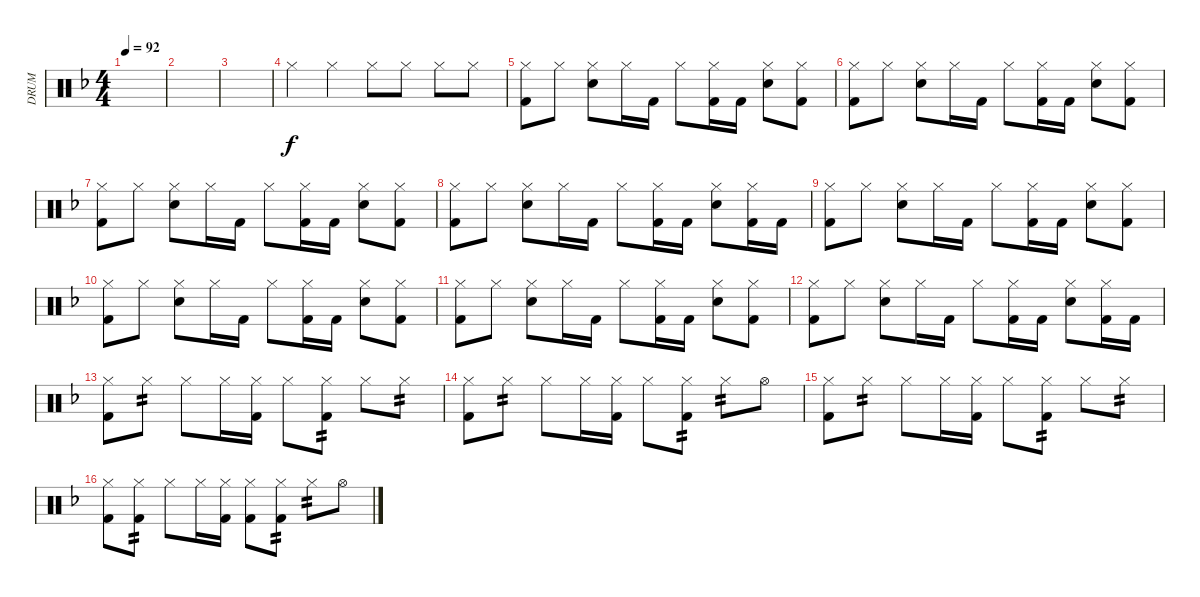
\track ("DRUM" "DRUM") {instrument percussion}
\staff {score}
\articulation defaults
\ts (4 4)
\tempo 92
\clef neutral
\ks f
|
|
|
"Hi-Hat (closed)".4 "Hi-Hat (closed)".4 "Hi-Hat (closed)".8 "Hi-Hat (closed)".8 "Hi-Hat (closed)".8 "Hi-Hat (closed)".8 |
("Hi-Hat (closed)" "Kick (hit) 2").8 "Hi-Hat (closed)".8 ("Hi-Hat (closed)" "Electric Snare (hit)").8 "Hi-Hat (closed)".16 "Kick (hit) 2".16 "Hi-Hat (closed)".8 ("Hi-Hat (closed)" "Kick (hit) 2").16 "Kick (hit) 2".16 ("Hi-Hat (closed)" "Electric Snare (hit)").8 ("Hi-Hat (closed)" "Kick (hit) 2").8 |
("Hi-Hat (closed)" "Kick (hit) 2").8 "Hi-Hat (closed)".8 ("Hi-Hat (closed)" "Electric Snare (hit)").8 "Hi-Hat (closed)".16 "Kick (hit) 2".16 "Hi-Hat (closed)".8 ("Hi-Hat (closed)" "Kick (hit) 2").16 "Kick (hit) 2".16 ("Hi-Hat (closed)" "Electric Snare (hit)").8 ("Hi-Hat (closed)" "Kick (hit) 2").8 |
("Hi-Hat (closed)" "Kick (hit) 2").8 "Hi-Hat (closed)".8 ("Hi-Hat (closed)" "Electric Snare (hit)").8 "Hi-Hat (closed)".16 "Kick (hit) 2".16 "Hi-Hat (closed)".8 ("Hi-Hat (closed)" "Kick (hit) 2").16 "Kick (hit) 2".16 ("Hi-Hat (closed)" "Electric Snare (hit)").8 ("Hi-Hat (closed)" "Kick (hit) 2").8 |
("Hi-Hat (closed)" "Kick (hit) 2").8 "Hi-Hat (closed)".8 ("Hi-Hat (closed)" "Electric Snare (hit)").8 "Hi-Hat (closed)".16 "Kick (hit) 2".16 "Hi-Hat (closed)".8 ("Hi-Hat (closed)" "Kick (hit) 2").16 "Kick (hit) 2".16 ("Hi-Hat (closed)" "Electric Snare (hit)").8 ("Hi-Hat (closed)" "Kick (hit) 2").16 "Kick (hit) 2".16 |
("Hi-Hat (closed)" "Kick (hit) 2").8 "Hi-Hat (closed)".8 ("Hi-Hat (closed)" "Electric Snare (hit)").8 "Hi-Hat (closed)".16 "Kick (hit) 2".16 "Hi-Hat (closed)".8 ("Hi-Hat (closed)" "Kick (hit) 2").16 "Kick (hit) 2".16 ("Hi-Hat (closed)" "Electric Snare (hit)").8 ("Hi-Hat (closed)" "Kick (hit) 2").8 |
("Hi-Hat (closed)" "Kick (hit) 2").8 "Hi-Hat (closed)".8 ("Hi-Hat (closed)" "Electric Snare (hit)").8 "Hi-Hat (closed)".16 "Kick (hit) 2".16 "Hi-Hat (closed)".8 ("Hi-Hat (closed)" "Kick (hit) 2").16 "Kick (hit) 2".16 ("Hi-Hat (closed)" "Electric Snare (hit)").8 ("Hi-Hat (closed)" "Kick (hit) 2").8 |
("Hi-Hat (closed)" "Kick (hit) 2").8 "Hi-Hat (closed)".8 ("Hi-Hat (closed)" "Electric Snare (hit)").8 "Hi-Hat (closed)".16 "Kick (hit) 2".16 "Hi-Hat (closed)".8 ("Hi-Hat (closed)" "Kick (hit) 2").16 "Kick (hit) 2".16 ("Hi-Hat (closed)" "Electric Snare (hit)").8 ("Hi-Hat (closed)" "Kick (hit) 2").8 |
("Hi-Hat (closed)" "Kick (hit) 2").8 "Hi-Hat (closed)".8 ("Hi-Hat (closed)" "Electric Snare (hit)").8 "Hi-Hat (closed)".16 "Kick (hit) 2".16 "Hi-Hat (closed)".8 ("Hi-Hat (closed)" "Kick (hit) 2").16 "Kick (hit) 2".16 ("Hi-Hat (closed)" "Electric Snare (hit)").8 ("Hi-Hat (closed)" "Kick (hit) 2").16 "Kick (hit) 2".16 |
("Hi-Hat (closed)" "Kick (hit) 2").8 "Hi-Hat (closed)".8{tp 2} "Hi-Hat (closed)".8 "Hi-Hat (closed)".16 ("Hi-Hat (closed)" "Kick (hit) 2").16 "Hi-Hat (closed)".8 ("Hi-Hat (closed)" "Kick (hit) 2").8{tp 2} "Hi-Hat (closed)".8 "Hi-Hat (closed)".8{tp 2} |
("Hi-Hat (closed)" "Kick (hit) 2").8 "Hi-Hat (closed)".8{tp 2} "Hi-Hat (closed)".8 "Hi-Hat (closed)".16 ("Hi-Hat (closed)" "Kick (hit) 2").16 "Hi-Hat (closed)".8 ("Hi-Hat (closed)" "Kick (hit) 2").8{tp 2} "Hi-Hat (closed)".8{tp 2} "Hi-Hat (open)".8 |
("Hi-Hat (closed)" "Kick (hit) 2").8 "Hi-Hat (closed)".8{tp 2} "Hi-Hat (closed)".8 "Hi-Hat (closed)".16 ("Hi-Hat (closed)" "Kick (hit) 2").16 "Hi-Hat (closed)".8 ("Hi-Hat (closed)" "Kick (hit) 2").8{tp 2} "Hi-Hat (closed)".8 "Hi-Hat (closed)".8{tp 2} |
("Hi-Hat (closed)" "Kick (hit) 2").8 ("Hi-Hat (closed)" "Kick (hit) 2").8{tp 2} "Hi-Hat (closed)".8 "Hi-Hat (closed)".16 ("Hi-Hat (closed)" "Kick (hit) 2").16 ("Hi-Hat (closed)" "Kick (hit) 2").8 ("Hi-Hat (closed)" "Kick (hit) 2").8{tp 2} "Hi-Hat (closed)".8{tp 2} "Hi-Hat (open)".8
